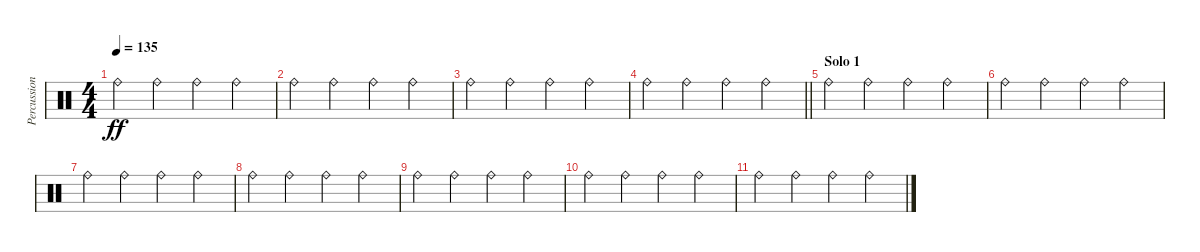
\track ("Percussion" "Percussion") {instrument percussion}
\staff {score}
\articulation defaults
\ts (4 4)
\tempo 135
\clef neutral
\ks c "Ride (bell)".4{dy ff} "Ride (bell)".4 "Ride (bell)".4 "Ride (bell)".4
|
"Ride (bell)".4 "Ride (bell)".4 "Ride (bell)".4 "Ride (bell)".4 |
"Ride (bell)".4 "Ride (bell)".4 "Ride (bell)".4 "Ride (bell)".4 |
\barLineRight lightlight "Ride (bell)".4 "Ride (bell)".4 "Ride (bell)".4 "Ride (bell)".4
|
\section ("" "Solo 1")
"Ride (bell)".4 "Ride (bell)".4 "Ride (bell)".4 "Ride (bell)".4 |
"Ride (bell)".4 "Ride (bell)".4 "Ride (bell)".4 "Ride (bell)".4 |
"Ride (bell)".4 "Ride (bell)".4 "Ride (bell)".4 "Ride (bell)".4 |
"Ride (bell)".4 "Ride (bell)".4 "Ride (bell)".4 "Ride (bell)".4 |
"Ride (bell)".4 "Ride (bell)".4 "Ride (bell)".4 "Ride (bell)".4 |
"Ride (bell)".4 "Ride (bell)".4 "Ride (bell)".4 "Ride (bell)".4 |
"Ride (bell)".4 "Ride (bell)".4 "Ride (bell)".4 "Ride (bell)".4
